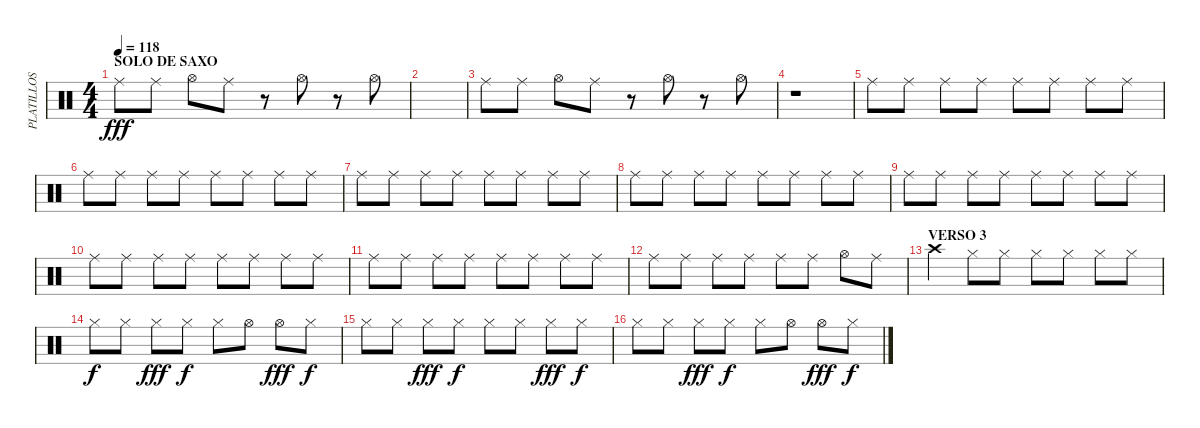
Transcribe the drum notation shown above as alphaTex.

\track ("PLATILLOS" "PLATILLOS") {instrument percussion}
\staff {score}
\articulation defaults
\ts (4 4)
\section ("" "SOLO DE SAXO")
\tempo 118
\clef neutral
\ks c "Ride (middle)".8{dy fff} "Ride (middle)".8 "Hi-Hat (open)".8 "Ride (middle)".8
r.8 "Hi-Hat (open)".8 r.8 "Hi-Hat (open)".8 |
|
"Ride (middle)".8 "Ride (middle)".8 "Hi-Hat (open)".8 "Ride (middle)".8 r.8 "Hi-Hat (open)".8 r.8 "Hi-Hat (open)".8 |
r.1 |
\section ("" "")
"Ride (middle)".8 "Ride (middle)".8 "Ride (middle)".8 "Ride (middle)".8 "Ride (middle)".8 "Ride (middle)".8 "Ride (middle)".8 "Ride (middle)".8 |
"Ride (middle)".8 "Ride (middle)".8 "Ride (middle)".8 "Ride (middle)".8 "Ride (middle)".8 "Ride (middle)".8 "Ride (middle)".8 "Ride (middle)".8 |
"Ride (middle)".8 "Ride (middle)".8 "Ride (middle)".8 "Ride (middle)".8 "Ride (middle)".8 "Ride (middle)".8 "Ride (middle)".8 "Ride (middle)".8 |
"Ride (middle)".8 "Ride (middle)".8 "Ride (middle)".8 "Ride (middle)".8 "Ride (middle)".8 "Ride (middle)".8 "Ride (middle)".8 "Ride (middle)".8 |
"Ride (middle)".8 "Ride (middle)".8 "Ride (middle)".8 "Ride (middle)".8 "Ride (middle)".8 "Ride (middle)".8 "Ride (middle)".8 "Ride (middle)".8 |
"Ride (middle)".8 "Ride (middle)".8 "Ride (middle)".8 "Ride (middle)".8 "Ride (middle)".8 "Ride (middle)".8 "Ride (middle)".8 "Ride (middle)".8 |
"Ride (middle)".8 "Ride (middle)".8 "Ride (middle)".8 "Ride (middle)".8 "Ride (middle)".8 "Ride (middle)".8 "Ride (middle)".8 "Ride (middle)".8 |
"Ride (middle)".8 "Ride (middle)".8 "Ride (middle)".8 "Ride (middle)".8 "Ride (middle)".8 "Ride (middle)".8 "Hi-Hat (open)".8 "Ride (middle)".8 |
\section ("" "VERSO 3")
"Crash high (hit)".4 "Hi-Hat (closed)".8 "Hi-Hat (closed)".8 "Hi-Hat (closed)".8 "Hi-Hat (closed)".8 "Hi-Hat (closed)".8 "Hi-Hat (closed)".8 |
"Hi-Hat (closed)".8{dy f} "Hi-Hat (closed)".8 "Hi-Hat (closed)".8{dy fff} "Hi-Hat (closed)".8{dy f} "Hi-Hat (closed)".8 "Hi-Hat (open)".8 "Hi-Hat (open)".8{dy fff} "Hi-Hat (closed)".8{dy f} |
"Hi-Hat (closed)".8 "Hi-Hat (closed)".8 "Hi-Hat (closed)".8{dy fff} "Hi-Hat (closed)".8{dy f} "Hi-Hat (closed)".8 "Hi-Hat (closed)".8 "Hi-Hat (closed)".8{dy fff} "Hi-Hat (closed)".8{dy f} |
"Hi-Hat (closed)".8 "Hi-Hat (closed)".8 "Hi-Hat (closed)".8{dy fff} "Hi-Hat (closed)".8{dy f} "Hi-Hat (closed)".8 "Hi-Hat (open)".8 "Hi-Hat (open)".8{dy fff} "Hi-Hat (closed)".8{dy f}
